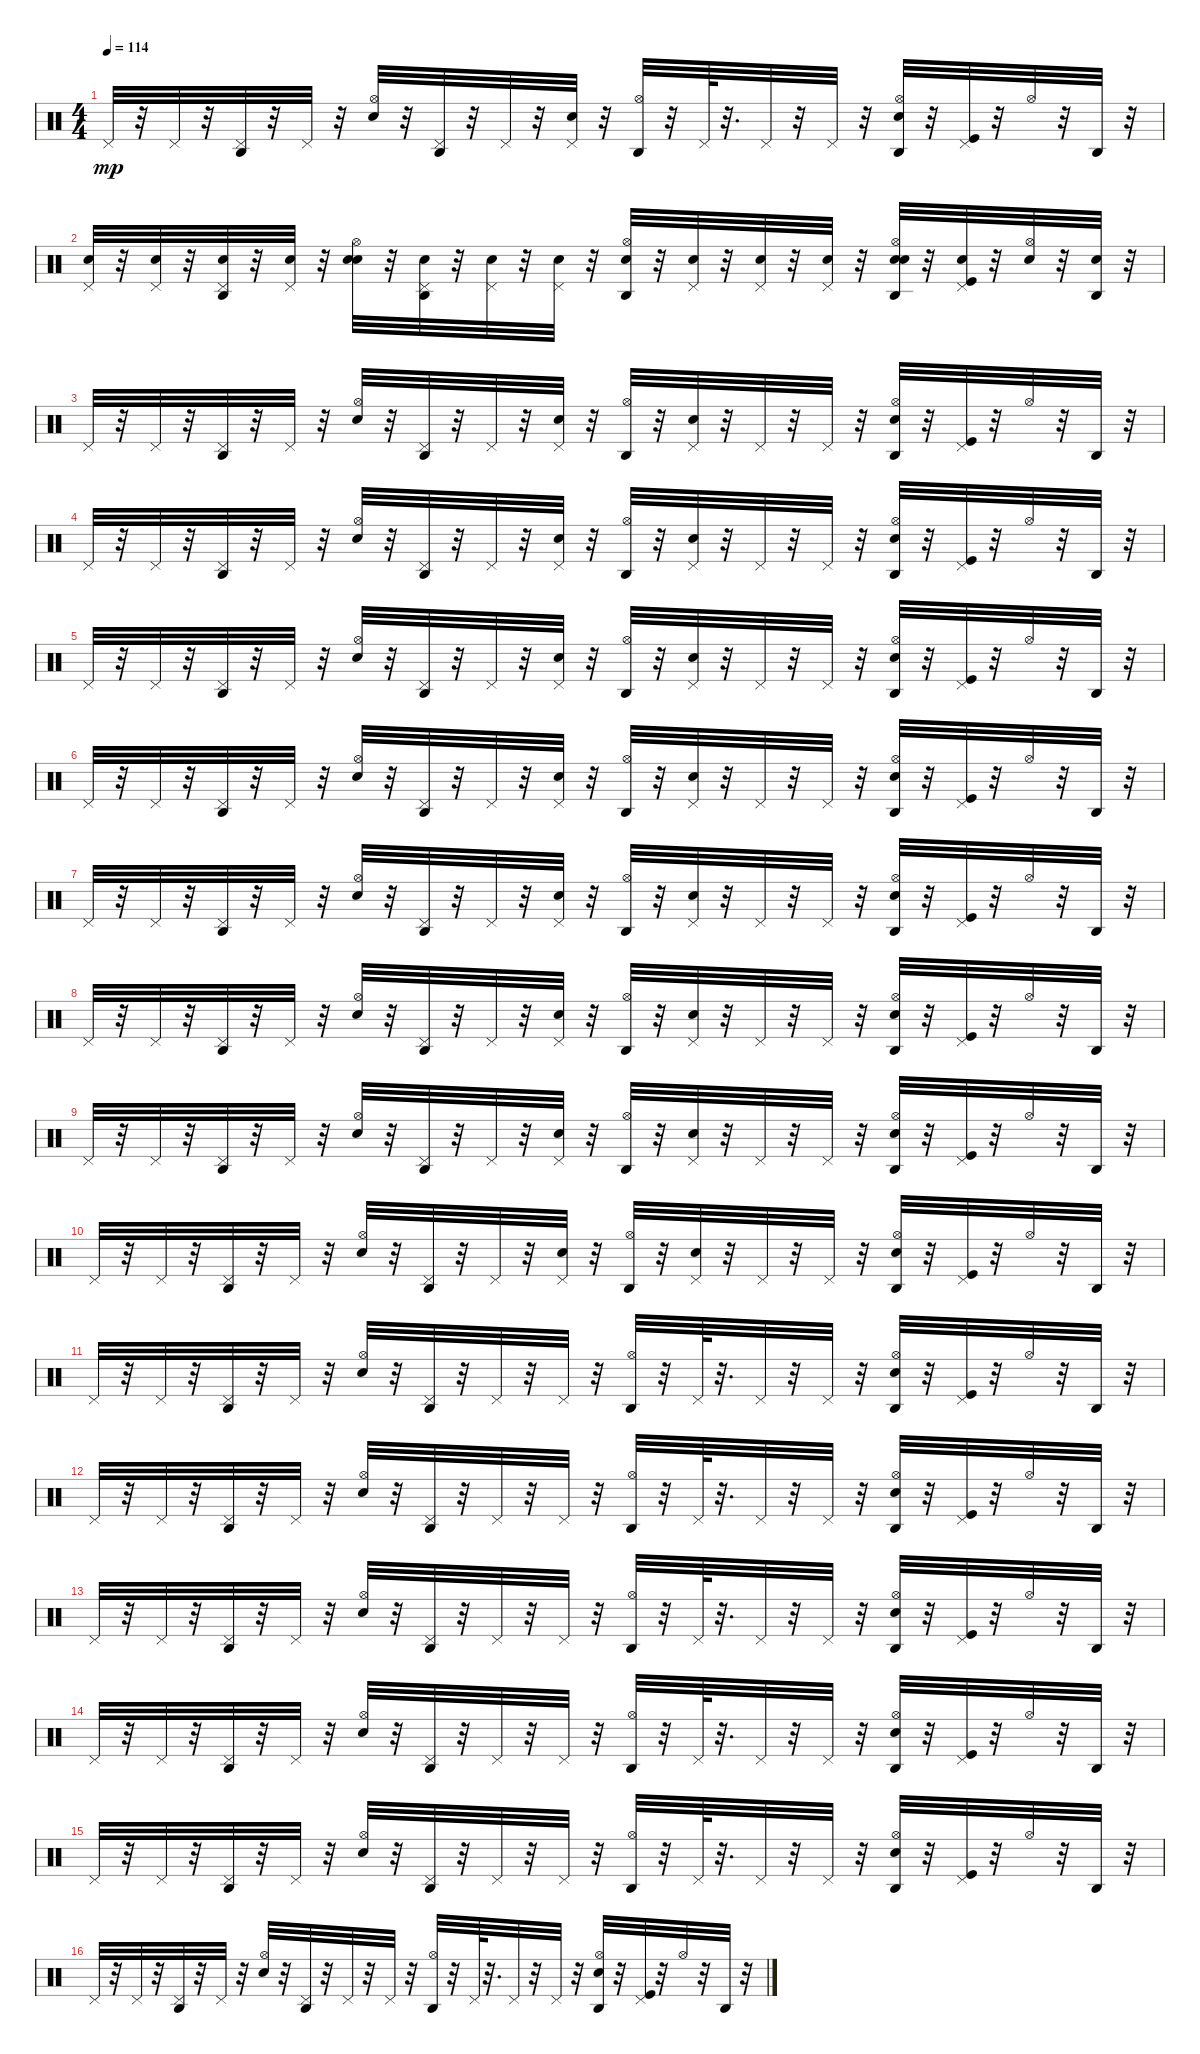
\track "" {instrument percussion}
\staff {score}
\articulation defaults
\ts (4 4)
\tempo 114
\clef neutral
\ks c "Pedal Hi-Hat (hit)".32{dy mp}
r.32 "Pedal Hi-Hat (hit)".32 r.32 ("Agogo high (hit)" "Pedal Hi-Hat (hit)").32 r.32 "Pedal Hi-Hat (hit)".32 r.32 ("Hi-Hat (open)" "Electric Snare (hit)").32 r.32 ("Pedal Hi-Hat (hit)" "Agogo high (hit)").32 r.32 "Pedal Hi-Hat (hit)".32 r.32 ("Pedal Hi-Hat (hit)" "Snare (hit) 2").32 r.32 ("Hi-Hat (open)" "Agogo high (hit)").32 r.32 "Pedal Hi-Hat (hit)".64 r.32{d} "Pedal Hi-Hat (hit)".32 r.32 "Pedal Hi-Hat (hit)".32 r.32 ("Hi-Hat (open)" "Agogo high (hit)" "Electric Snare (hit)").32 r.32 ("Pedal Hi-Hat (hit)" "Kick (hit)").32 r.32 "Hi-Hat (open)".32 r.32 "Agogo high (hit)".32 r.32 |
("Snare (hit) 2" "Pedal Hi-Hat (hit)").32 r.32 ("Snare (hit) 2" "Pedal Hi-Hat (hit)").32 r.32 ("Snare (hit) 2" "Agogo high (hit)" "Pedal Hi-Hat (hit)").32 r.32 ("Snare (hit) 2" "Pedal Hi-Hat (hit)").32 r.32 ("Snare (hit) 2" "Hi-Hat (open)" "Electric Snare (hit)").32 r.32 ("Pedal Hi-Hat (hit)" "Snare (hit) 2" "Agogo high (hit)").32 r.32 ("Snare (hit) 2" "Pedal Hi-Hat (hit)").32 r.32 ("Snare (hit) 2" "Pedal Hi-Hat (hit)").32 r.32 ("Snare (hit) 2" "Hi-Hat (open)" "Agogo high (hit)").32 r.32 ("Pedal Hi-Hat (hit)" "Snare (hit) 2").32 r.32 ("Snare (hit) 2" "Pedal Hi-Hat (hit)").32 r.32 ("Snare (hit) 2" "Pedal Hi-Hat (hit)").32 r.32 ("Snare (hit) 2" "Hi-Hat (open)" "Agogo high (hit)" "Electric Snare (hit)").32 r.32 ("Pedal Hi-Hat (hit)" "Snare (hit) 2" "Kick (hit)").32 r.32 ("Snare (hit) 2" "Hi-Hat (open)").32 r.32 ("Snare (hit) 2" "Agogo high (hit)").32 r.32 |
"Pedal Hi-Hat (hit)".32 r.32 "Pedal Hi-Hat (hit)".32 r.32 ("Agogo high (hit)" "Pedal Hi-Hat (hit)").32 r.32 "Pedal Hi-Hat (hit)".32 r.32 ("Hi-Hat (open)" "Electric Snare (hit)").32 r.32 ("Pedal Hi-Hat (hit)" "Agogo high (hit)").32 r.32 "Pedal Hi-Hat (hit)".32 r.32 ("Pedal Hi-Hat (hit)" "Snare (hit) 2").32 r.32 ("Hi-Hat (open)" "Agogo high (hit)").32 r.32 ("Pedal Hi-Hat (hit)" "Snare (hit) 2").32 r.32 "Pedal Hi-Hat (hit)".32 r.32 "Pedal Hi-Hat (hit)".32 r.32 ("Hi-Hat (open)" "Agogo high (hit)" "Electric Snare (hit)").32 r.32 ("Pedal Hi-Hat (hit)" "Kick (hit)").32 r.32 "Hi-Hat (open)".32 r.32 "Agogo high (hit)".32 r.32 |
"Pedal Hi-Hat (hit)".32 r.32 "Pedal Hi-Hat (hit)".32 r.32 ("Agogo high (hit)" "Pedal Hi-Hat (hit)").32 r.32 "Pedal Hi-Hat (hit)".32 r.32 ("Hi-Hat (open)" "Electric Snare (hit)").32 r.32 ("Pedal Hi-Hat (hit)" "Agogo high (hit)").32 r.32 "Pedal Hi-Hat (hit)".32 r.32 ("Pedal Hi-Hat (hit)" "Snare (hit) 2").32 r.32 ("Hi-Hat (open)" "Agogo high (hit)").32 r.32 ("Pedal Hi-Hat (hit)" "Snare (hit) 2").32 r.32 "Pedal Hi-Hat (hit)".32 r.32 "Pedal Hi-Hat (hit)".32 r.32 ("Hi-Hat (open)" "Agogo high (hit)" "Electric Snare (hit)").32 r.32 ("Pedal Hi-Hat (hit)" "Kick (hit)").32 r.32 "Hi-Hat (open)".32 r.32 "Agogo high (hit)".32 r.32 |
"Pedal Hi-Hat (hit)".32 r.32 "Pedal Hi-Hat (hit)".32 r.32 ("Agogo high (hit)" "Pedal Hi-Hat (hit)").32 r.32 "Pedal Hi-Hat (hit)".32 r.32 ("Hi-Hat (open)" "Electric Snare (hit)").32 r.32 ("Pedal Hi-Hat (hit)" "Agogo high (hit)").32 r.32 "Pedal Hi-Hat (hit)".32 r.32 ("Snare (hit) 2" "Pedal Hi-Hat (hit)").32 r.32 ("Hi-Hat (open)" "Agogo high (hit)").32 r.32 ("Pedal Hi-Hat (hit)" "Snare (hit) 2").32 r.32 "Pedal Hi-Hat (hit)".32 r.32 "Pedal Hi-Hat (hit)".32 r.32 ("Hi-Hat (open)" "Agogo high (hit)" "Electric Snare (hit)").32 r.32 ("Pedal Hi-Hat (hit)" "Kick (hit)").32 r.32 "Hi-Hat (open)".32 r.32 "Agogo high (hit)".32 r.32 |
"Pedal Hi-Hat (hit)".32 r.32 "Pedal Hi-Hat (hit)".32 r.32 ("Agogo high (hit)" "Pedal Hi-Hat (hit)").32 r.32 "Pedal Hi-Hat (hit)".32 r.32 ("Hi-Hat (open)" "Electric Snare (hit)").32 r.32 ("Pedal Hi-Hat (hit)" "Agogo high (hit)").32 r.32 "Pedal Hi-Hat (hit)".32 r.32 ("Snare (hit) 2" "Pedal Hi-Hat (hit)").32 r.32 ("Hi-Hat (open)" "Agogo high (hit)").32 r.32 ("Pedal Hi-Hat (hit)" "Snare (hit) 2").32 r.32 "Pedal Hi-Hat (hit)".32 r.32 "Pedal Hi-Hat (hit)".32 r.32 ("Hi-Hat (open)" "Agogo high (hit)" "Electric Snare (hit)").32 r.32 ("Pedal Hi-Hat (hit)" "Kick (hit)").32 r.32 "Hi-Hat (open)".32 r.32 "Agogo high (hit)".32 r.32 |
"Pedal Hi-Hat (hit)".32 r.32 "Pedal Hi-Hat (hit)".32 r.32 ("Agogo high (hit)" "Pedal Hi-Hat (hit)").32 r.32 "Pedal Hi-Hat (hit)".32 r.32 ("Hi-Hat (open)" "Electric Snare (hit)").32 r.32 ("Pedal Hi-Hat (hit)" "Agogo high (hit)").32 r.32 "Pedal Hi-Hat (hit)".32 r.32 ("Snare (hit) 2" "Pedal Hi-Hat (hit)").32 r.32 ("Agogo high (hit)" "Hi-Hat (open)").32 r.32 ("Pedal Hi-Hat (hit)" "Snare (hit) 2").32 r.32 "Pedal Hi-Hat (hit)".32 r.32 "Pedal Hi-Hat (hit)".32 r.32 ("Agogo high (hit)" "Hi-Hat (open)" "Electric Snare (hit)").32 r.32 ("Pedal Hi-Hat (hit)" "Kick (hit)").32 r.32 "Hi-Hat (open)".32 r.32 "Agogo high (hit)".32 r.32 |
"Pedal Hi-Hat (hit)".32 r.32 "Pedal Hi-Hat (hit)".32 r.32 ("Agogo high (hit)" "Pedal Hi-Hat (hit)").32 r.32 "Pedal Hi-Hat (hit)".32 r.32 ("Hi-Hat (open)" "Electric Snare (hit)").32 r.32 ("Pedal Hi-Hat (hit)" "Agogo high (hit)").32 r.32 "Pedal Hi-Hat (hit)".32 r.32 ("Snare (hit) 2" "Pedal Hi-Hat (hit)").32 r.32 ("Agogo high (hit)" "Hi-Hat (open)").32 r.32 ("Pedal Hi-Hat (hit)" "Snare (hit) 2").32 r.32 "Pedal Hi-Hat (hit)".32 r.32 "Pedal Hi-Hat (hit)".32 r.32 ("Agogo high (hit)" "Hi-Hat (open)" "Electric Snare (hit)").32 r.32 ("Pedal Hi-Hat (hit)" "Kick (hit)").32 r.32 "Hi-Hat (open)".32 r.32 "Agogo high (hit)".32 r.32 |
"Pedal Hi-Hat (hit)".32 r.32 "Pedal Hi-Hat (hit)".32 r.32 ("Agogo high (hit)" "Pedal Hi-Hat (hit)").32 r.32 "Pedal Hi-Hat (hit)".32 r.32 ("Hi-Hat (open)" "Electric Snare (hit)").32 r.32 ("Pedal Hi-Hat (hit)" "Agogo high (hit)").32 r.32 "Pedal Hi-Hat (hit)".32 r.32 ("Snare (hit) 2" "Pedal Hi-Hat (hit)").32 r.32 ("Agogo high (hit)" "Hi-Hat (open)").32 r.32 ("Pedal Hi-Hat (hit)" "Snare (hit) 2").32 r.32 "Pedal Hi-Hat (hit)".32 r.32 "Pedal Hi-Hat (hit)".32 r.32 ("Agogo high (hit)" "Hi-Hat (open)" "Electric Snare (hit)").32 r.32 ("Pedal Hi-Hat (hit)" "Kick (hit)").32 r.32 "Hi-Hat (open)".32 r.32 "Agogo high (hit)".32 r.32 |
"Pedal Hi-Hat (hit)".32 r.32 "Pedal Hi-Hat (hit)".32 r.32 ("Agogo high (hit)" "Pedal Hi-Hat (hit)").32 r.32 "Pedal Hi-Hat (hit)".32 r.32 ("Hi-Hat (open)" "Electric Snare (hit)").32 r.32 ("Pedal Hi-Hat (hit)" "Agogo high (hit)").32 r.32 "Pedal Hi-Hat (hit)".32 r.32 ("Snare (hit) 2" "Pedal Hi-Hat (hit)").32 r.32 ("Agogo high (hit)" "Hi-Hat (open)").32 r.32 ("Pedal Hi-Hat (hit)" "Snare (hit) 2").32 r.32 "Pedal Hi-Hat (hit)".32 r.32 "Pedal Hi-Hat (hit)".32 r.32 ("Agogo high (hit)" "Hi-Hat (open)" "Electric Snare (hit)").32 r.32 ("Pedal Hi-Hat (hit)" "Kick (hit)").32 r.32 "Hi-Hat (open)".32 r.32 "Agogo high (hit)".32 r.32 |
"Pedal Hi-Hat (hit)".32 r.32 "Pedal Hi-Hat (hit)".32 r.32 ("Agogo high (hit)" "Pedal Hi-Hat (hit)").32 r.32 "Pedal Hi-Hat (hit)".32 r.32 ("Hi-Hat (open)" "Electric Snare (hit)").32 r.32 ("Pedal Hi-Hat (hit)" "Agogo high (hit)").32 r.32 "Pedal Hi-Hat (hit)".32 r.32 "Pedal Hi-Hat (hit)".32 r.32 ("Agogo high (hit)" "Hi-Hat (open)").32 r.32 "Pedal Hi-Hat (hit)".64 r.32{d} "Pedal Hi-Hat (hit)".32 r.32 "Pedal Hi-Hat (hit)".32 r.32 ("Agogo high (hit)" "Hi-Hat (open)" "Electric Snare (hit)").32 r.32 ("Pedal Hi-Hat (hit)" "Kick (hit)").32 r.32 "Hi-Hat (open)".32 r.32 "Agogo high (hit)".32 r.32 |
"Pedal Hi-Hat (hit)".32 r.32 "Pedal Hi-Hat (hit)".32 r.32 ("Agogo high (hit)" "Pedal Hi-Hat (hit)").32 r.32 "Pedal Hi-Hat (hit)".32 r.32 ("Hi-Hat (open)" "Electric Snare (hit)").32 r.32 ("Pedal Hi-Hat (hit)" "Agogo high (hit)").32 r.32 "Pedal Hi-Hat (hit)".32 r.32 "Pedal Hi-Hat (hit)".32 r.32 ("Agogo high (hit)" "Hi-Hat (open)").32 r.32 "Pedal Hi-Hat (hit)".64 r.32{d} "Pedal Hi-Hat (hit)".32 r.32 "Pedal Hi-Hat (hit)".32 r.32 ("Agogo high (hit)" "Hi-Hat (open)" "Electric Snare (hit)").32 r.32 ("Pedal Hi-Hat (hit)" "Kick (hit)").32 r.32 "Hi-Hat (open)".32 r.32 "Agogo high (hit)".32 r.32 |
"Pedal Hi-Hat (hit)".32 r.32 "Pedal Hi-Hat (hit)".32 r.32 ("Agogo high (hit)" "Pedal Hi-Hat (hit)").32 r.32 "Pedal Hi-Hat (hit)".32 r.32 ("Hi-Hat (open)" "Electric Snare (hit)").32 r.32 ("Pedal Hi-Hat (hit)" "Agogo high (hit)").32 r.32 "Pedal Hi-Hat (hit)".32 r.32 "Pedal Hi-Hat (hit)".32 r.32 ("Agogo high (hit)" "Hi-Hat (open)").32 r.32 "Pedal Hi-Hat (hit)".64 r.32{d} "Pedal Hi-Hat (hit)".32 r.32 "Pedal Hi-Hat (hit)".32 r.32 ("Agogo high (hit)" "Hi-Hat (open)" "Electric Snare (hit)").32 r.32 ("Pedal Hi-Hat (hit)" "Kick (hit)").32 r.32 "Hi-Hat (open)".32 r.32 "Agogo high (hit)".32 r.32 |
"Pedal Hi-Hat (hit)".32 r.32 "Pedal Hi-Hat (hit)".32 r.32 ("Agogo high (hit)" "Pedal Hi-Hat (hit)").32 r.32 "Pedal Hi-Hat (hit)".32 r.32 ("Hi-Hat (open)" "Electric Snare (hit)").32 r.32 ("Pedal Hi-Hat (hit)" "Agogo high (hit)").32 r.32 "Pedal Hi-Hat (hit)".32 r.32 "Pedal Hi-Hat (hit)".32 r.32 ("Agogo high (hit)" "Hi-Hat (open)").32 r.32 "Pedal Hi-Hat (hit)".64 r.32{d} "Pedal Hi-Hat (hit)".32 r.32 "Pedal Hi-Hat (hit)".32 r.32 ("Agogo high (hit)" "Hi-Hat (open)" "Electric Snare (hit)").32 r.32 ("Pedal Hi-Hat (hit)" "Kick (hit)").32 r.32 "Hi-Hat (open)".32 r.32 "Agogo high (hit)".32 r.32 |
"Pedal Hi-Hat (hit)".32 r.32 "Pedal Hi-Hat (hit)".32 r.32 ("Agogo high (hit)" "Pedal Hi-Hat (hit)").32 r.32 "Pedal Hi-Hat (hit)".32 r.32 ("Hi-Hat (open)" "Electric Snare (hit)").32 r.32 ("Pedal Hi-Hat (hit)" "Agogo high (hit)").32 r.32 "Pedal Hi-Hat (hit)".32 r.32 "Pedal Hi-Hat (hit)".32 r.32 ("Agogo high (hit)" "Hi-Hat (open)").32 r.32 "Pedal Hi-Hat (hit)".64 r.32{d} "Pedal Hi-Hat (hit)".32 r.32 "Pedal Hi-Hat (hit)".32 r.32 ("Agogo high (hit)" "Hi-Hat (open)" "Electric Snare (hit)").32 r.32 ("Pedal Hi-Hat (hit)" "Kick (hit)").32 r.32 "Hi-Hat (open)".32 r.32 "Agogo high (hit)".32 r.32 |
"Pedal Hi-Hat (hit)".32 r.32 "Pedal Hi-Hat (hit)".32 r.32 ("Agogo high (hit)" "Pedal Hi-Hat (hit)").32 r.32 "Pedal Hi-Hat (hit)".32 r.32 ("Hi-Hat (open)" "Electric Snare (hit)").32 r.32 ("Pedal Hi-Hat (hit)" "Agogo high (hit)").32 r.32 "Pedal Hi-Hat (hit)".32 r.32 "Pedal Hi-Hat (hit)".32 r.32 ("Agogo high (hit)" "Hi-Hat (open)").32 r.32 "Pedal Hi-Hat (hit)".64 r.32{d} "Pedal Hi-Hat (hit)".32 r.32 "Pedal Hi-Hat (hit)".32 r.32 ("Agogo high (hit)" "Hi-Hat (open)" "Electric Snare (hit)").32 r.32 ("Pedal Hi-Hat (hit)" "Kick (hit)").32 r.32 "Hi-Hat (open)".32 r.32 "Agogo high (hit)".32 r.32
